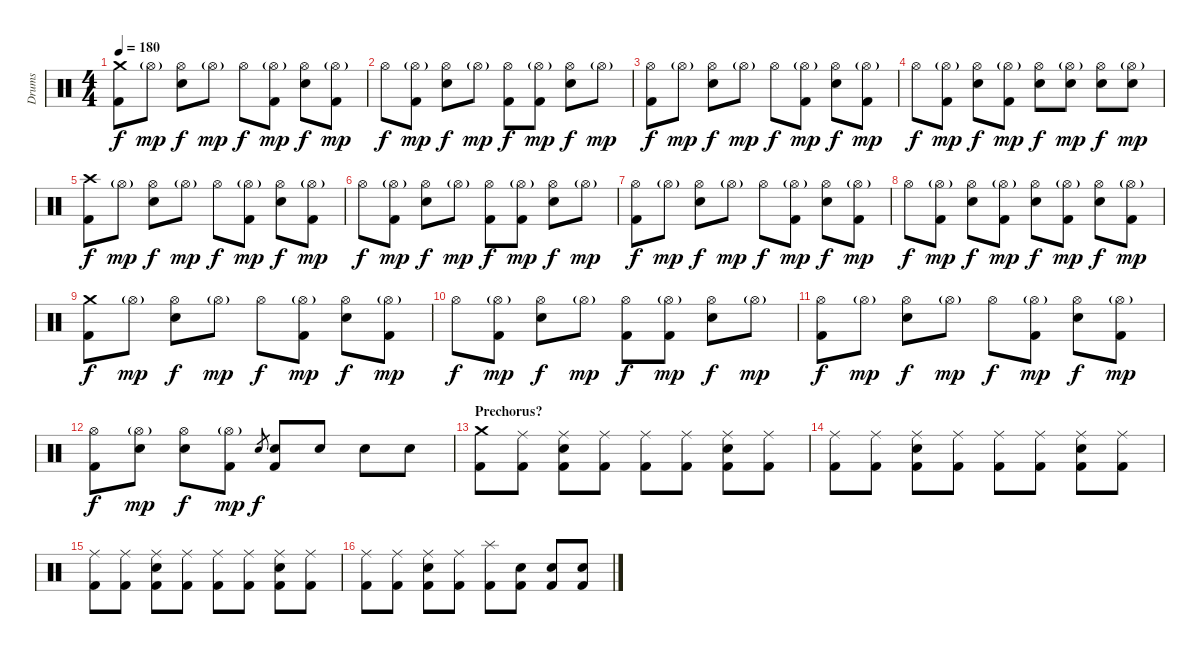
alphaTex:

\track ("Drums" "Drums") {instrument percussion}
\staff {score}
\articulation defaults
\ts (4 4)
\tempo 180
\clef neutral
\ks c
("Crash medium (hit)" "Kick (hit) 2").8{dy f} "Hi-Hat (open)"{g}.8{dy mp} ("Hi-Hat (open)" "Snare (hit) 2").8{dy f} "Hi-Hat (open)"{g}.8{dy mp} "Hi-Hat (open)".8{dy f} ("Hi-Hat (open)"{g} "Kick (hit) 2").8{dy mp} ("Hi-Hat (open)" "Snare (hit) 2").8{dy f} ("Hi-Hat (open)"{g} "Kick (hit) 2").8{dy mp} |
"Hi-Hat (open)".8{dy f} ("Hi-Hat (open)"{g} "Kick (hit) 2").8{dy mp} ("Hi-Hat (open)" "Snare (hit) 2").8{dy f} "Hi-Hat (open)"{g}.8{dy mp} ("Hi-Hat (open)" "Kick (hit) 2").8{dy f} ("Hi-Hat (open)"{g} "Kick (hit) 2").8{dy mp} ("Hi-Hat (open)" "Snare (hit) 2").8{dy f} "Hi-Hat (open)"{g}.8{dy mp} |
("Hi-Hat (open)" "Kick (hit) 2").8{dy f} "Hi-Hat (open)"{g}.8{dy mp} ("Hi-Hat (open)" "Snare (hit) 2").8{dy f} "Hi-Hat (open)"{g}.8{dy mp} "Hi-Hat (open)".8{dy f} ("Hi-Hat (open)"{g} "Kick (hit) 2").8{dy mp} ("Hi-Hat (open)" "Snare (hit) 2").8{dy f} ("Hi-Hat (open)"{g} "Kick (hit) 2").8{dy mp} |
"Hi-Hat (open)".8{dy f} ("Hi-Hat (open)"{g} "Kick (hit) 2").8{dy mp} ("Hi-Hat (open)" "Snare (hit) 2").8{dy f} ("Hi-Hat (open)"{g} "Kick (hit) 2").8{dy mp} ("Hi-Hat (open)" "Snare (hit) 2").8{dy f} ("Hi-Hat (open)"{g} "Snare (hit) 2").8{dy mp} ("Hi-Hat (open)" "Snare (hit) 2").8{dy f} ("Hi-Hat (open)"{g} "Snare (hit) 2").8{dy mp} |
("Crash high (hit)" "Kick (hit) 2").8{dy f} "Hi-Hat (open)"{g}.8{dy mp} ("Hi-Hat (open)" "Snare (hit) 2").8{dy f} "Hi-Hat (open)"{g}.8{dy mp} "Hi-Hat (open)".8{dy f} ("Hi-Hat (open)"{g} "Kick (hit) 2").8{dy mp} ("Hi-Hat (open)" "Snare (hit) 2").8{dy f} ("Hi-Hat (open)"{g} "Kick (hit) 2").8{dy mp} |
"Hi-Hat (open)".8{dy f} ("Hi-Hat (open)"{g} "Kick (hit) 2").8{dy mp} ("Hi-Hat (open)" "Snare (hit) 2").8{dy f} "Hi-Hat (open)"{g}.8{dy mp} ("Hi-Hat (open)" "Kick (hit) 2").8{dy f} ("Hi-Hat (open)"{g} "Kick (hit) 2").8{dy mp} ("Hi-Hat (open)" "Snare (hit) 2").8{dy f} "Hi-Hat (open)"{g}.8{dy mp} |
("Hi-Hat (open)" "Kick (hit) 2").8{dy f} "Hi-Hat (open)"{g}.8{dy mp} ("Hi-Hat (open)" "Snare (hit) 2").8{dy f} "Hi-Hat (open)"{g}.8{dy mp} "Hi-Hat (open)".8{dy f} ("Hi-Hat (open)"{g} "Kick (hit) 2").8{dy mp} ("Hi-Hat (open)" "Snare (hit) 2").8{dy f} ("Hi-Hat (open)"{g} "Kick (hit) 2").8{dy mp} |
"Hi-Hat (open)".8{dy f} ("Hi-Hat (open)"{g} "Kick (hit) 2").8{dy mp} ("Hi-Hat (open)" "Snare (hit) 2").8{dy f} ("Hi-Hat (open)"{g} "Kick (hit) 2").8{dy mp} ("Hi-Hat (open)" "Snare (hit) 2").8{dy f} ("Hi-Hat (open)"{g} "Kick (hit) 2").8{dy mp} ("Hi-Hat (open)" "Snare (hit) 2").8{dy f} ("Hi-Hat (open)"{g} "Kick (hit) 2").8{dy mp} |
("Crash medium (hit)" "Kick (hit) 2").8{dy f} "Hi-Hat (open)"{g}.8{dy mp} ("Hi-Hat (open)" "Snare (hit) 2").8{dy f} "Hi-Hat (open)"{g}.8{dy mp} "Hi-Hat (open)".8{dy f} ("Hi-Hat (open)"{g} "Kick (hit) 2").8{dy mp} ("Hi-Hat (open)" "Snare (hit) 2").8{dy f} ("Hi-Hat (open)"{g} "Kick (hit) 2").8{dy mp} |
"Hi-Hat (open)".8{dy f} ("Hi-Hat (open)"{g} "Kick (hit) 2").8{dy mp} ("Hi-Hat (open)" "Snare (hit) 2").8{dy f} "Hi-Hat (open)"{g}.8{dy mp} ("Hi-Hat (open)" "Kick (hit) 2").8{dy f} ("Hi-Hat (open)"{g} "Kick (hit) 2").8{dy mp} ("Hi-Hat (open)" "Snare (hit) 2").8{dy f} "Hi-Hat (open)"{g}.8{dy mp} |
("Hi-Hat (open)" "Kick (hit) 2").8{dy f} "Hi-Hat (open)"{g}.8{dy mp} ("Hi-Hat (open)" "Snare (hit) 2").8{dy f} "Hi-Hat (open)"{g}.8{dy mp} "Hi-Hat (open)".8{dy f} ("Hi-Hat (open)"{g} "Kick (hit) 2").8{dy mp} ("Hi-Hat (open)" "Snare (hit) 2").8{dy f} ("Hi-Hat (open)"{g} "Kick (hit) 2").8{dy mp} |
("Hi-Hat (open)" "Kick (hit) 2").8{dy f} ("Hi-Hat (open)"{g} "Snare (hit) 2").8{dy mp} ("Hi-Hat (open)" "Snare (hit) 2").8{dy f} ("Hi-Hat (open)"{g} "Kick (hit) 2").8{dy mp} "Snare (hit) 2".8{gr dy f} ("Snare (hit) 2" "Kick (hit) 2").8 "Snare (hit) 2".8 "Snare (hit) 2".8 "Snare (hit) 2".8 |
\section ("" "Prechorus?")
("Crash medium (hit)" "Kick (hit) 2").8 ("Ride (middle)" "Kick (hit) 2").8 ("Ride (middle)" "Snare (hit) 2" "Kick (hit) 2").8 ("Ride (middle)" "Kick (hit) 2").8 ("Ride (middle)" "Kick (hit) 2").8 ("Ride (middle)" "Kick (hit) 2").8 ("Ride (middle)" "Snare (hit) 2" "Kick (hit) 2").8 ("Ride (middle)" "Kick (hit) 2").8 |
("Ride (middle)" "Kick (hit) 2").8 ("Ride (middle)" "Kick (hit) 2").8 ("Ride (middle)" "Snare (hit) 2" "Kick (hit) 2").8 ("Ride (middle)" "Kick (hit) 2").8 ("Ride (middle)" "Kick (hit) 2").8 ("Ride (middle)" "Kick (hit) 2").8 ("Ride (middle)" "Snare (hit) 2" "Kick (hit) 2").8 ("Ride (middle)" "Kick (hit) 2").8 |
("Ride (middle)" "Kick (hit) 2").8 ("Ride (middle)" "Kick (hit) 2").8 ("Ride (middle)" "Snare (hit) 2" "Kick (hit) 2").8 ("Ride (middle)" "Kick (hit) 2").8 ("Ride (middle)" "Kick (hit) 2").8 ("Ride (middle)" "Kick (hit) 2").8 ("Ride (middle)" "Snare (hit) 2" "Kick (hit) 2").8 ("Ride (middle)" "Kick (hit) 2").8 |
("Ride (middle)" "Kick (hit) 2").8 ("Ride (middle)" "Kick (hit) 2").8 ("Ride (middle)" "Snare (hit) 2" "Kick (hit) 2").8 ("Ride (middle)" "Kick (hit) 2").8 ("Splash (hit)" "Kick (hit) 2").8 ("Snare (hit) 2" "Kick (hit) 2").8 ("Snare (hit) 2" "Kick (hit) 2").8 ("Snare (hit) 2" "Kick (hit) 2").8
